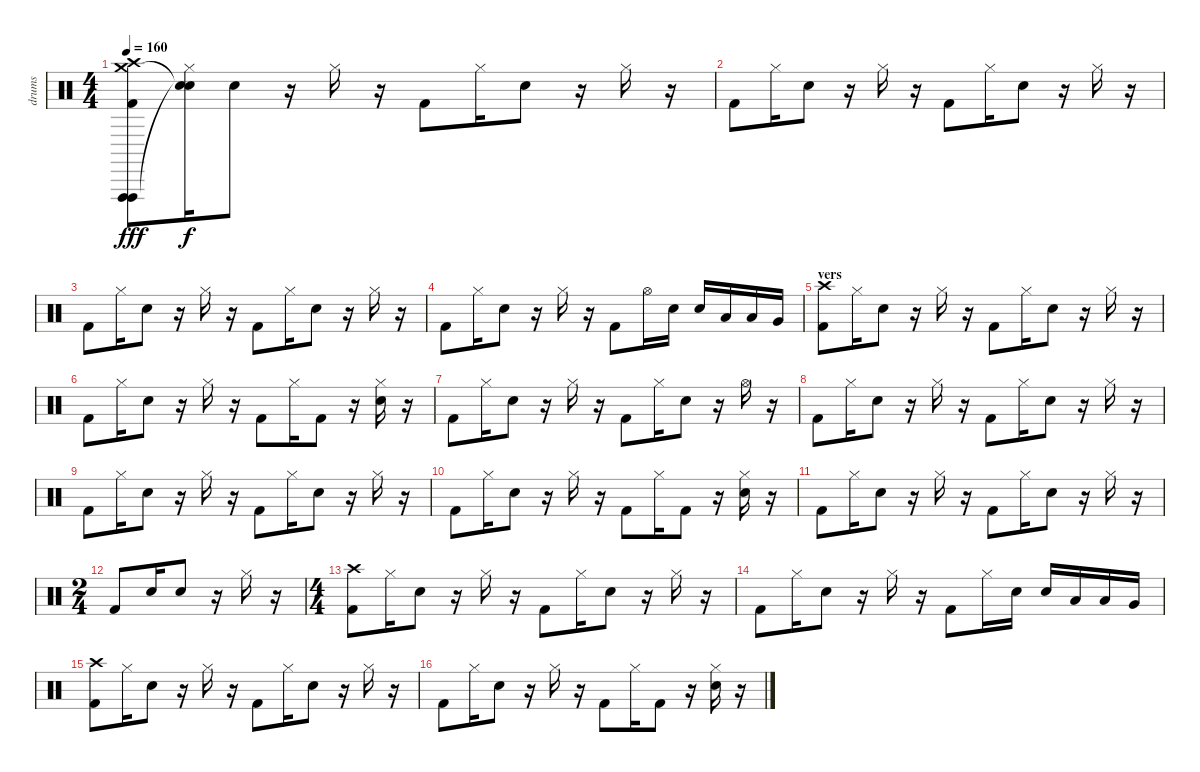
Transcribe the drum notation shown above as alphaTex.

\track ("drums" "drums") {instrument percussion}
\staff {score}
\articulation defaults
\ts (4 4)
\tempo 160
\clef neutral
\ks c
("Crash high (hit)" "Crash medium (hit)" "Vibraslap (hit)" "Vibraslap (hit)" "Kick (hit) 2").8{dy fff} ("Hi-Hat (closed)" "Snare (hit)"{t} "Snare (hit)"{t}).16{dy f} "Electric Snare (hit)".8 r.16 "Hi-Hat (closed)".16 r.16 "Kick (hit) 2".8 "Hi-Hat (closed)".16 "Electric Snare (hit)".8 r.16 "Hi-Hat (closed)".16 r.16 |
"Kick (hit) 2".8 "Hi-Hat (closed)".16 "Electric Snare (hit)".8 r.16 "Hi-Hat (closed)".16 r.16 "Kick (hit) 2".8 "Hi-Hat (closed)".16 "Electric Snare (hit)".8 r.16 "Hi-Hat (closed)".16 r.16 |
"Kick (hit) 2".8 "Hi-Hat (closed)".16 "Electric Snare (hit)".8 r.16 "Hi-Hat (closed)".16 r.16 "Kick (hit) 2".8 "Hi-Hat (closed)".16 "Electric Snare (hit)".8 r.16 "Hi-Hat (closed)".16 r.16 |
"Kick (hit) 2".8 "Hi-Hat (closed)".16 "Electric Snare (hit)".8 r.16 "Hi-Hat (closed)".16 r.16 "Kick (hit) 2".8 "Hi-Hat (open)".16 "Electric Snare (hit)".16 "Electric Snare (hit)".16 "Low Tom (hit)".16 "Low Tom (hit)".16 "Very Low Tom (hit)".16 |
\section ("" "vers")
("Crash high (hit)" "Kick (hit) 2").8 "Hi-Hat (closed)".16 "Electric Snare (hit)".8 r.16 "Hi-Hat (closed)".16 r.16 "Kick (hit) 2".8 "Hi-Hat (closed)".16 "Electric Snare (hit)".8 r.16 "Hi-Hat (closed)".16 r.16 |
"Kick (hit) 2".8 "Hi-Hat (closed)".16 "Electric Snare (hit)".8 r.16 "Hi-Hat (closed)".16 r.16 "Kick (hit) 2".8 "Hi-Hat (closed)".16 "Kick (hit) 2".8 r.16 ("Hi-Hat (closed)" "Electric Snare (hit)").16 r.16 |
"Kick (hit) 2".8 "Hi-Hat (closed)".16 "Electric Snare (hit)".8 r.16 "Hi-Hat (closed)".16 r.16 "Kick (hit) 2".8 "Hi-Hat (closed)".16 "Electric Snare (hit)".8 r.16 "Hi-Hat (open)".16 r.16 |
"Kick (hit) 2".8 "Hi-Hat (closed)".16 "Electric Snare (hit)".8 r.16 "Hi-Hat (closed)".16 r.16 "Kick (hit) 2".8 "Hi-Hat (closed)".16 "Electric Snare (hit)".8 r.16 "Hi-Hat (closed)".16 r.16 |
"Kick (hit) 2".8 "Hi-Hat (closed)".16 "Electric Snare (hit)".8 r.16 "Hi-Hat (closed)".16 r.16 "Kick (hit) 2".8 "Hi-Hat (closed)".16 "Electric Snare (hit)".8 r.16 "Hi-Hat (closed)".16 r.16 |
"Kick (hit) 2".8 "Hi-Hat (closed)".16 "Electric Snare (hit)".8 r.16 "Hi-Hat (closed)".16 r.16 "Kick (hit) 2".8 "Hi-Hat (closed)".16 "Kick (hit) 2".8 r.16 ("Hi-Hat (closed)" "Electric Snare (hit)").16 r.16 |
"Kick (hit) 2".8 "Hi-Hat (closed)".16 "Electric Snare (hit)".8 r.16 "Hi-Hat (closed)".16 r.16 "Kick (hit) 2".8 "Hi-Hat (closed)".16 "Electric Snare (hit)".8 r.16 "Hi-Hat (closed)".16 r.16 |
\ts (2 4)
"Kick (hit) 2".8 "Electric Snare (hit)".16 "Electric Snare (hit)".8 r.16 "Hi-Hat (closed)".16 r.16 |
\ts (4 4)
("Crash high (hit)" "Kick (hit) 2").8 "Hi-Hat (closed)".16 "Electric Snare (hit)".8 r.16 "Hi-Hat (closed)".16 r.16 "Kick (hit) 2".8 "Hi-Hat (closed)".16 "Electric Snare (hit)".8 r.16 "Hi-Hat (closed)".16 r.16 |
"Kick (hit) 2".8 "Hi-Hat (closed)".16 "Electric Snare (hit)".8 r.16 "Hi-Hat (closed)".16 r.16 "Kick (hit) 2".8 "Hi-Hat (closed)".16 "Electric Snare (hit)".16 "Electric Snare (hit)".16 "Low Tom (hit)".16 "Low Tom (hit)".16 "Very Low Tom (hit)".16 |
("Crash high (hit)" "Kick (hit) 2").8 "Hi-Hat (closed)".16 "Electric Snare (hit)".8 r.16 "Hi-Hat (closed)".16 r.16 "Kick (hit) 2".8 "Hi-Hat (closed)".16 "Electric Snare (hit)".8 r.16 "Hi-Hat (closed)".16 r.16 |
"Kick (hit) 2".8 "Hi-Hat (closed)".16 "Electric Snare (hit)".8 r.16 "Hi-Hat (closed)".16 r.16 "Kick (hit) 2".8 "Hi-Hat (closed)".16 "Kick (hit) 2".8 r.16 ("Hi-Hat (closed)" "Electric Snare (hit)").16 r.16
